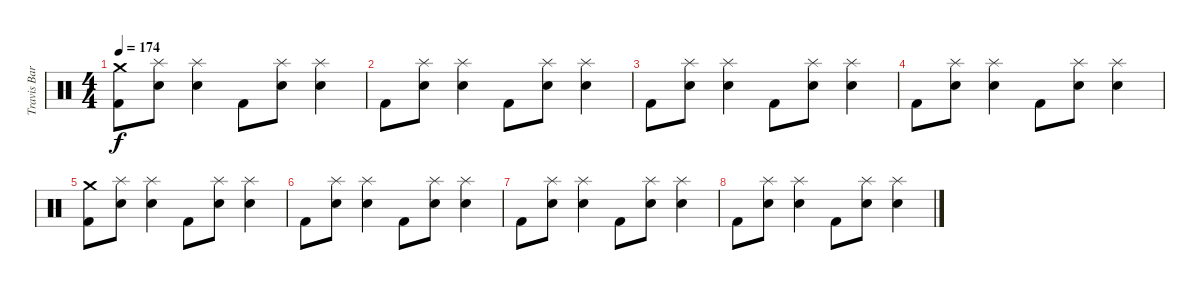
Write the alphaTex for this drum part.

\track ("Travis Barker - Drums" "Travis Bar") {instrument percussion}
\staff {score}
\articulation defaults
\ts (4 4)
\tempo 174
\clef neutral
\ks c
("Crash medium (hit)" "Kick (hit) 2").8{dy f} ("Splash (hit)" "Electric Snare (hit)").8 ("Splash (hit)" "Electric Snare (hit)").4 "Kick (hit) 2".8 ("Splash (hit)" "Electric Snare (hit)").8 ("Splash (hit)" "Electric Snare (hit)").4 |
"Kick (hit) 2".8 ("Splash (hit)" "Electric Snare (hit)").8 ("Splash (hit)" "Electric Snare (hit)").4 "Kick (hit) 2".8 ("Splash (hit)" "Electric Snare (hit)").8 ("Splash (hit)" "Electric Snare (hit)").4 |
"Kick (hit) 2".8 ("Splash (hit)" "Electric Snare (hit)").8 ("Splash (hit)" "Electric Snare (hit)").4 "Kick (hit) 2".8 ("Splash (hit)" "Electric Snare (hit)").8 ("Splash (hit)" "Electric Snare (hit)").4 |
"Kick (hit) 2".8 ("Splash (hit)" "Electric Snare (hit)").8 ("Splash (hit)" "Electric Snare (hit)").4 "Kick (hit) 2".8 ("Splash (hit)" "Electric Snare (hit)").8 ("Splash (hit)" "Electric Snare (hit)").4 |
("Crash medium (hit)" "Kick (hit) 2").8{volume 0} ("Splash (hit)" "Electric Snare (hit)").8 ("Splash (hit)" "Electric Snare (hit)").4 "Kick (hit) 2".8 ("Splash (hit)" "Electric Snare (hit)").8 ("Splash (hit)" "Electric Snare (hit)").4 |
"Kick (hit) 2".8 ("Splash (hit)" "Electric Snare (hit)").8 ("Splash (hit)" "Electric Snare (hit)").4 "Kick (hit) 2".8 ("Splash (hit)" "Electric Snare (hit)").8 ("Splash (hit)" "Electric Snare (hit)").4 |
"Kick (hit) 2".8 ("Splash (hit)" "Electric Snare (hit)").8 ("Splash (hit)" "Electric Snare (hit)").4 "Kick (hit) 2".8 ("Splash (hit)" "Electric Snare (hit)").8 ("Splash (hit)" "Electric Snare (hit)").4 |
"Kick (hit) 2".8 ("Splash (hit)" "Electric Snare (hit)").8 ("Splash (hit)" "Electric Snare (hit)").4 "Kick (hit) 2".8 ("Splash (hit)" "Electric Snare (hit)").8 ("Splash (hit)" "Electric Snare (hit)").4
